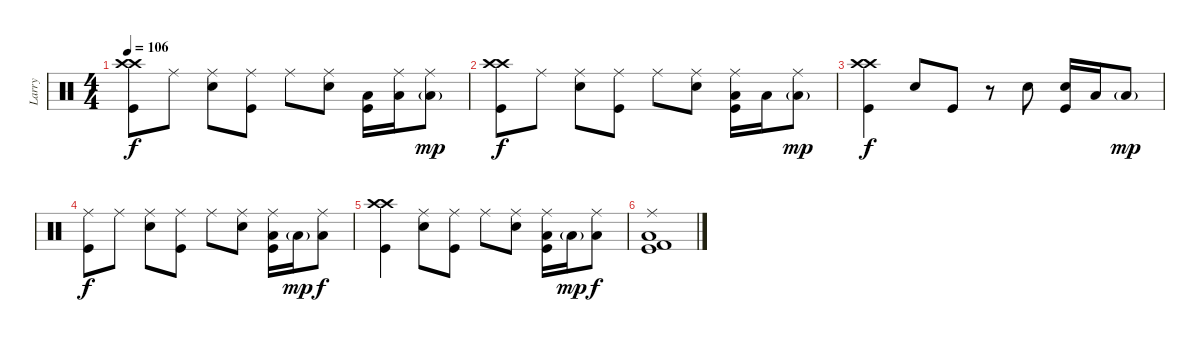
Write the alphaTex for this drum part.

\track ("Larry" "Larry") {instrument percussion}
\staff {score}
\articulation defaults
\ts (4 4)
\tempo 106
\clef neutral
\ks c
("Crash high (hit)" "Crash high (hit)" "Kick (hit)").8{dy f} "Ride (middle)".8 ("Ride (middle)" "Snare (hit) 2").8 ("Ride (middle)" "Kick (hit)").8 "Ride (middle)".8 ("Ride (middle)" "Snare (hit) 2").8 ("Low Tom (hit)" "Kick (hit)").16 ("Ride (middle)" "Low Tom (hit)").16 ("Ride (middle)" "Low Tom (hit)"{g}).8{dy mp} |
("Crash high (hit)" "Crash high (hit)" "Kick (hit)").8{dy f} "Ride (middle)".8 ("Ride (middle)" "Snare (hit) 2").8 ("Ride (middle)" "Kick (hit)").8 "Ride (middle)".8 ("Ride (middle)" "Snare (hit) 2").8 ("Ride (middle)" "Low Tom (hit)" "Kick (hit)").16 "Low Tom (hit)".16 ("Ride (middle)" "Low Tom (hit)"{g}).8{dy mp} |
("Crash high (hit)" "Crash high (hit)" "Kick (hit)").4{dy f} "Snare (hit) 2".8 "Kick (hit)".8 r.8 "Snare (hit) 2".8 ("Snare (hit) 2" "Kick (hit)").16 "Low Tom (hit)".16 "Low Tom (hit)"{g}.8{dy mp} |
("Ride (middle)" "Kick (hit)").8{dy f} "Ride (middle)".8 ("Ride (middle)" "Snare (hit) 2").8 ("Ride (middle)" "Kick (hit)").8 "Ride (middle)".8 ("Ride (middle)" "Snare (hit) 2").8 ("Ride (middle)" "Low Tom (hit)" "Kick (hit)").16 "Low Tom (hit)"{g}.16{dy mp} ("Ride (middle)" "Low Tom (hit)").8{dy f} |
("Crash high (hit)" "Crash high (hit)" "Kick (hit)").4 ("Ride (middle)" "Snare (hit) 2").8 ("Ride (middle)" "Kick (hit)").8 "Ride (middle)".8 ("Ride (middle)" "Snare (hit) 2").8 ("Ride (middle)" "Low Tom (hit)" "Kick (hit)").16 "Low Tom (hit)"{g}.16{dy mp} ("Ride (middle)" "Low Tom (hit)").8{dy f} |
("Ride (middle)" "Low Tom (hit)" "Kick (hit)" "Kick (hit) 2").1
